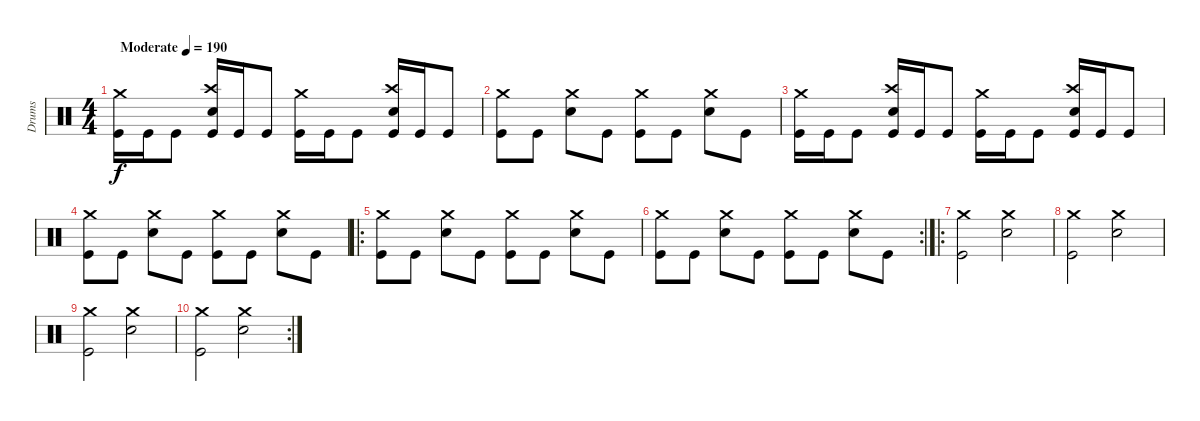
\track ("Drums" "Drums") {instrument percussion}
\staff {score}
\articulation defaults
\ts (4 4)
\tempo (190 "Moderate")
\clef neutral
\ks c
("Crash medium (hit)" "Kick (hit)").16{dy f} "Kick (hit)".16 "Kick (hit)".8 ("Crash high (hit)" "Snare (hit) 2" "Kick (hit)").16 "Kick (hit)".16 "Kick (hit)".8 ("Crash medium (hit)" "Kick (hit)").16 "Kick (hit)".16 "Kick (hit)".8 ("Crash high (hit)" "Snare (hit) 2" "Kick (hit)").16 "Kick (hit)".16 "Kick (hit)".8 |
("Crash medium (hit)" "Kick (hit)").8 "Kick (hit)".8 ("Crash medium (hit)" "Snare (hit) 2").8 "Kick (hit)".8 ("Crash medium (hit)" "Kick (hit)").8 "Kick (hit)".8 ("Crash medium (hit)" "Snare (hit) 2").8 "Kick (hit)".8 |
("Crash medium (hit)" "Kick (hit)").16 "Kick (hit)".16 "Kick (hit)".8 ("Crash high (hit)" "Snare (hit) 2" "Kick (hit)").16 "Kick (hit)".16 "Kick (hit)".8 ("Crash medium (hit)" "Kick (hit)").16 "Kick (hit)".16 "Kick (hit)".8 ("Crash high (hit)" "Snare (hit) 2" "Kick (hit)").16 "Kick (hit)".16 "Kick (hit)".8 |
("Crash medium (hit)" "Kick (hit)").8 "Kick (hit)".8 ("Crash medium (hit)" "Snare (hit) 2").8 "Kick (hit)".8 ("Crash medium (hit)" "Kick (hit)").8 "Kick (hit)".8 ("Crash medium (hit)" "Snare (hit) 2").8 "Kick (hit)".8 |
\ro
("Crash medium (hit)" "Kick (hit)").8 "Kick (hit)".8 ("Crash medium (hit)" "Snare (hit) 2").8 "Kick (hit)".8 ("Crash medium (hit)" "Kick (hit)").8 "Kick (hit)".8 ("Crash medium (hit)" "Snare (hit) 2").8 "Kick (hit)".8 |
\rc 2
("Crash medium (hit)" "Kick (hit)").8 "Kick (hit)".8 ("Crash medium (hit)" "Snare (hit) 2").8 "Kick (hit)".8 ("Crash medium (hit)" "Kick (hit)").8 "Kick (hit)".8 ("Crash medium (hit)" "Snare (hit) 2").8 "Kick (hit)".8 |
\ro
("Crash medium (hit)" "Kick (hit)").2 ("Crash medium (hit)" "Snare (hit) 2").2 |
("Crash medium (hit)" "Kick (hit)").2 ("Crash medium (hit)" "Snare (hit) 2").2 |
("Crash medium (hit)" "Kick (hit)").2 ("Crash medium (hit)" "Snare (hit) 2").2 |
\rc 2
("Crash medium (hit)" "Kick (hit)").2 ("Crash medium (hit)" "Snare (hit) 2").2
